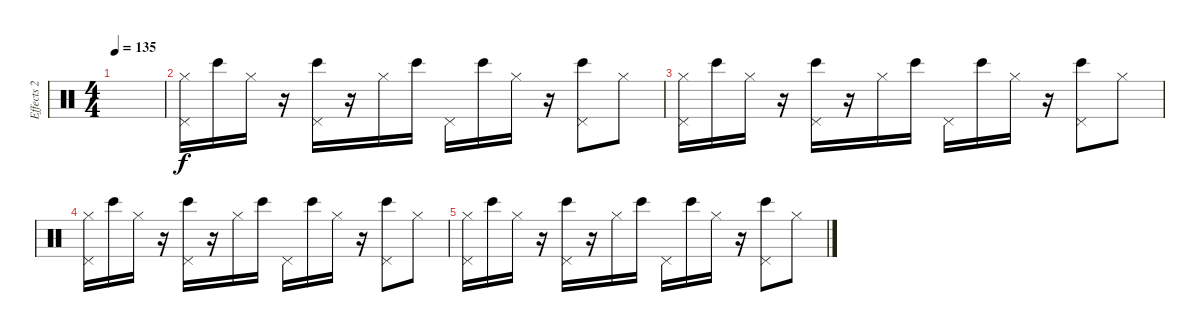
\track ("Effects 2" "Effects 2") {instrument percussion}
\staff {score}
\articulation defaults
\ts (4 4)
\tempo 135
\clef neutral
\ks c
|
("Pedal Hi-Hat (hit)" "Hi-Hat (closed)").16{volume 4} "Bongo High (hit)".16 "Hi-Hat (closed)".16 r.16 ("Pedal Hi-Hat (hit)" "Bongo High (hit)").16{volume 16} r.16 "Hi-Hat (closed)".16 "Bongo High (hit)".16 "Pedal Hi-Hat (hit)".16 "Bongo High (hit)".16 "Hi-Hat (closed)".16 r.16 ("Pedal Hi-Hat (hit)" "Bongo High (hit)").8 "Hi-Hat (closed)".8 |
("Pedal Hi-Hat (hit)" "Hi-Hat (closed)").16 "Bongo High (hit)".16 "Hi-Hat (closed)".16 r.16 ("Pedal Hi-Hat (hit)" "Bongo High (hit)").16 r.16 "Hi-Hat (closed)".16 "Bongo High (hit)".16 "Pedal Hi-Hat (hit)".16 "Bongo High (hit)".16 "Hi-Hat (closed)".16 r.16 ("Pedal Hi-Hat (hit)" "Bongo High (hit)").8 "Hi-Hat (closed)".8 |
("Pedal Hi-Hat (hit)" "Hi-Hat (closed)").16 "Bongo High (hit)".16 "Hi-Hat (closed)".16 r.16 ("Pedal Hi-Hat (hit)" "Bongo High (hit)").16 r.16 "Hi-Hat (closed)".16 "Bongo High (hit)".16 "Pedal Hi-Hat (hit)".16 "Bongo High (hit)".16 "Hi-Hat (closed)".16 r.16 ("Pedal Hi-Hat (hit)" "Bongo High (hit)").8 "Hi-Hat (closed)".8 |
("Pedal Hi-Hat (hit)" "Hi-Hat (closed)").16 "Bongo High (hit)".16 "Hi-Hat (closed)".16 r.16 ("Pedal Hi-Hat (hit)" "Bongo High (hit)").16 r.16 "Hi-Hat (closed)".16 "Bongo High (hit)".16 "Pedal Hi-Hat (hit)".16 "Bongo High (hit)".16 "Hi-Hat (closed)".16 r.16 ("Pedal Hi-Hat (hit)" "Bongo High (hit)").8 "Hi-Hat (closed)".8
